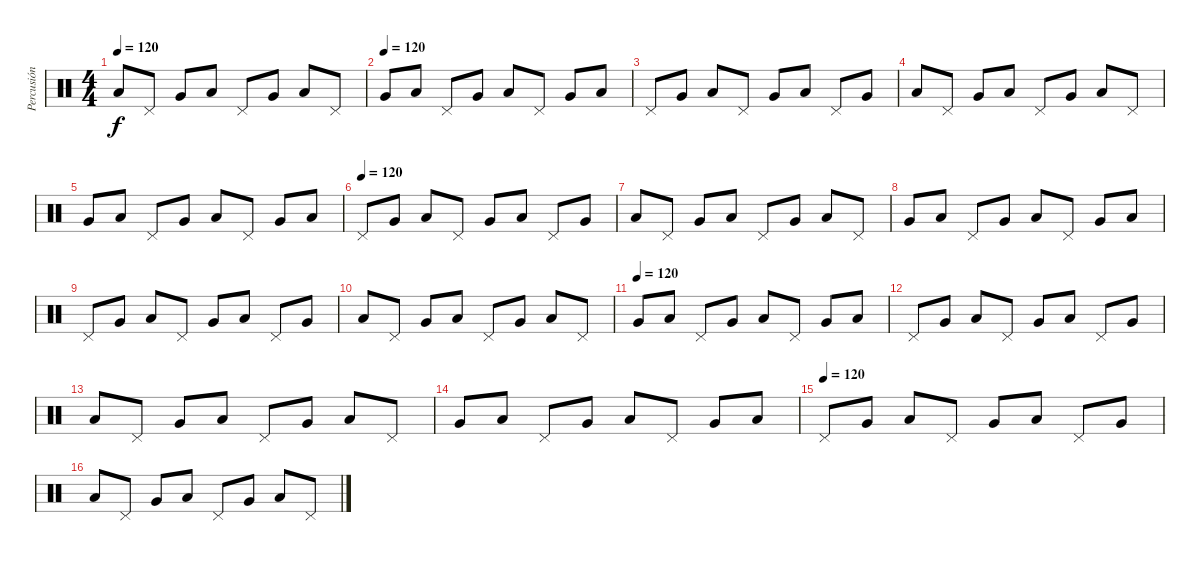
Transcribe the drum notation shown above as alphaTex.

\track ("Percusión" "Percusión") {instrument percussion}
\staff {score}
\articulation defaults
\ts (4 4)
\tempo 120
\clef neutral
\ks c "Low Floor Tom (hit)".8{dy f} "Pedal Hi-Hat (hit)".8 "Very Low Tom (hit)".8 "Low Floor Tom (hit)".8 "Pedal Hi-Hat (hit)".8 "Very Low Tom (hit)".8 "Low Floor Tom (hit)".8 "Pedal Hi-Hat (hit)".8
|
\tempo (120)
"Very Low Tom (hit)".8 "Low Floor Tom (hit)".8 "Pedal Hi-Hat (hit)".8 "Very Low Tom (hit)".8 "Low Floor Tom (hit)".8 "Pedal Hi-Hat (hit)".8 "Very Low Tom (hit)".8 "Low Floor Tom (hit)".8 |
"Pedal Hi-Hat (hit)".8 "Very Low Tom (hit)".8 "Low Floor Tom (hit)".8 "Pedal Hi-Hat (hit)".8 "Very Low Tom (hit)".8 "Low Floor Tom (hit)".8 "Pedal Hi-Hat (hit)".8 "Very Low Tom (hit)".8 |
"Low Floor Tom (hit)".8 "Pedal Hi-Hat (hit)".8 "Very Low Tom (hit)".8 "Low Floor Tom (hit)".8 "Pedal Hi-Hat (hit)".8 "Very Low Tom (hit)".8 "Low Floor Tom (hit)".8 "Pedal Hi-Hat (hit)".8 |
"Very Low Tom (hit)".8 "Low Floor Tom (hit)".8 "Pedal Hi-Hat (hit)".8 "Very Low Tom (hit)".8 "Low Floor Tom (hit)".8 "Pedal Hi-Hat (hit)".8 "Very Low Tom (hit)".8 "Low Floor Tom (hit)".8 |
\tempo (120)
"Pedal Hi-Hat (hit)".8 "Very Low Tom (hit)".8 "Low Floor Tom (hit)".8 "Pedal Hi-Hat (hit)".8 "Very Low Tom (hit)".8 "Low Floor Tom (hit)".8 "Pedal Hi-Hat (hit)".8 "Very Low Tom (hit)".8 |
"Low Floor Tom (hit)".8 "Pedal Hi-Hat (hit)".8 "Very Low Tom (hit)".8 "Low Floor Tom (hit)".8 "Pedal Hi-Hat (hit)".8 "Very Low Tom (hit)".8 "Low Floor Tom (hit)".8 "Pedal Hi-Hat (hit)".8 |
"Very Low Tom (hit)".8 "Low Floor Tom (hit)".8 "Pedal Hi-Hat (hit)".8 "Very Low Tom (hit)".8 "Low Floor Tom (hit)".8 "Pedal Hi-Hat (hit)".8 "Very Low Tom (hit)".8 "Low Floor Tom (hit)".8 |
"Pedal Hi-Hat (hit)".8 "Very Low Tom (hit)".8 "Low Floor Tom (hit)".8 "Pedal Hi-Hat (hit)".8 "Very Low Tom (hit)".8 "Low Floor Tom (hit)".8 "Pedal Hi-Hat (hit)".8 "Very Low Tom (hit)".8 |
"Low Floor Tom (hit)".8 "Pedal Hi-Hat (hit)".8 "Very Low Tom (hit)".8 "Low Floor Tom (hit)".8 "Pedal Hi-Hat (hit)".8 "Very Low Tom (hit)".8 "Low Floor Tom (hit)".8 "Pedal Hi-Hat (hit)".8 |
\tempo (120)
"Very Low Tom (hit)".8 "Low Floor Tom (hit)".8 "Pedal Hi-Hat (hit)".8 "Very Low Tom (hit)".8 "Low Floor Tom (hit)".8 "Pedal Hi-Hat (hit)".8 "Very Low Tom (hit)".8 "Low Floor Tom (hit)".8 |
"Pedal Hi-Hat (hit)".8 "Very Low Tom (hit)".8 "Low Floor Tom (hit)".8 "Pedal Hi-Hat (hit)".8 "Very Low Tom (hit)".8 "Low Floor Tom (hit)".8 "Pedal Hi-Hat (hit)".8 "Very Low Tom (hit)".8 |
"Low Floor Tom (hit)".8 "Pedal Hi-Hat (hit)".8 "Very Low Tom (hit)".8 "Low Floor Tom (hit)".8 "Pedal Hi-Hat (hit)".8 "Very Low Tom (hit)".8 "Low Floor Tom (hit)".8 "Pedal Hi-Hat (hit)".8 |
"Very Low Tom (hit)".8 "Low Floor Tom (hit)".8 "Pedal Hi-Hat (hit)".8 "Very Low Tom (hit)".8 "Low Floor Tom (hit)".8 "Pedal Hi-Hat (hit)".8 "Very Low Tom (hit)".8 "Low Floor Tom (hit)".8 |
\tempo (120)
"Pedal Hi-Hat (hit)".8 "Very Low Tom (hit)".8 "Low Floor Tom (hit)".8 "Pedal Hi-Hat (hit)".8 "Very Low Tom (hit)".8 "Low Floor Tom (hit)".8 "Pedal Hi-Hat (hit)".8 "Very Low Tom (hit)".8 |
"Low Floor Tom (hit)".8 "Pedal Hi-Hat (hit)".8 "Very Low Tom (hit)".8 "Low Floor Tom (hit)".8 "Pedal Hi-Hat (hit)".8 "Very Low Tom (hit)".8 "Low Floor Tom (hit)".8 "Pedal Hi-Hat (hit)".8
